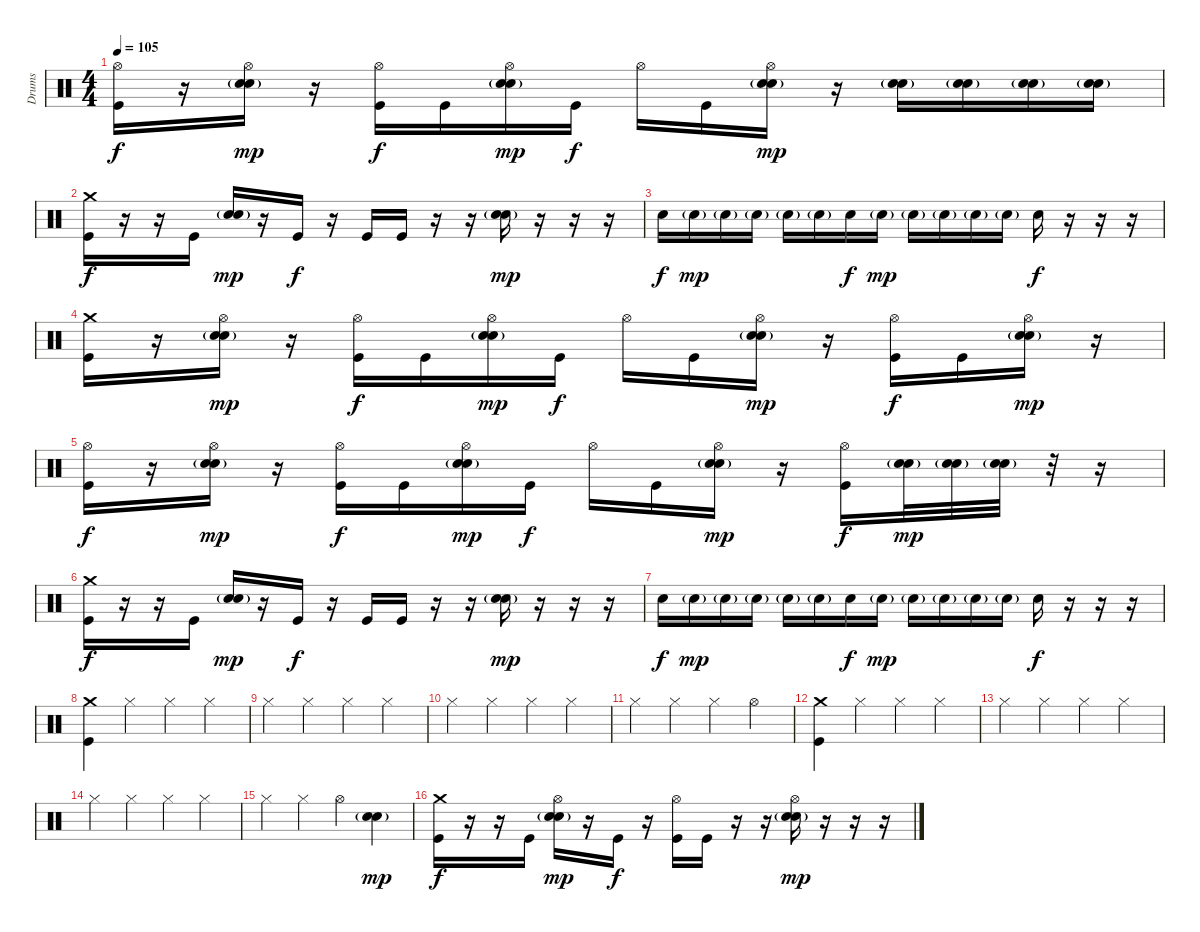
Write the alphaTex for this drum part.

\track ("Drums" "Drums") {instrument percussion}
\staff {score}
\articulation defaults
\ts (4 4)
\tempo 105
\clef neutral
\ks c
("Hi-Hat (open)" "Kick (hit)").16{dy f} r.16 ("Hi-Hat (open)" "Snare (hit) 2"{g} "Snare (hit) 2").16{dy mp} r.16 ("Hi-Hat (open)" "Kick (hit)").16{dy f} "Kick (hit)".16 ("Hi-Hat (open)" "Snare (hit) 2"{g} "Snare (hit) 2").16{dy mp} "Kick (hit)".16{dy f} "Hi-Hat (open)".16 "Kick (hit)".16 ("Hi-Hat (open)" "Snare (hit) 2"{g} "Snare (hit) 2").16{dy mp} r.16 ("Snare (hit) 2"{g} "Snare (hit) 2").16 ("Snare (hit) 2"{g} "Snare (hit) 2").16 ("Snare (hit) 2"{g} "Snare (hit) 2").16 ("Snare (hit) 2"{g} "Snare (hit) 2").16 |
("Crash medium (hit)" "Kick (hit)").16{dy f} r.16 r.16 "Kick (hit)".16 ("Snare (hit) 2"{g} "Snare (hit) 2").16{dy mp} r.16 "Kick (hit)".16{dy f} r.16 "Kick (hit)".16 "Kick (hit)".16 r.16 r.16 ("Snare (hit) 2"{g} "Snare (hit) 2").16{dy mp} r.16 r.16 r.16 |
"Snare (hit) 2".16{dy f} "Snare (hit) 2"{g}.16{dy mp} "Snare (hit) 2"{g}.16 "Snare (hit) 2"{g}.16 "Snare (hit) 2"{g}.16 "Snare (hit) 2"{g}.16 "Snare (hit) 2".16{dy f} "Snare (hit) 2"{g}.16{dy mp} "Snare (hit) 2"{g}.16 "Snare (hit) 2"{g}.16 "Snare (hit) 2"{g}.16 "Snare (hit) 2"{g}.16 "Snare (hit) 2".16{dy f} r.16 r.16 r.16 |
("Crash medium (hit)" "Kick (hit)").16 r.16 ("Hi-Hat (open)" "Snare (hit) 2"{g} "Snare (hit) 2").16{dy mp} r.16 ("Hi-Hat (open)" "Kick (hit)").16{dy f} "Kick (hit)".16 ("Hi-Hat (open)" "Snare (hit) 2"{g} "Snare (hit) 2").16{dy mp} "Kick (hit)".16{dy f} "Hi-Hat (open)".16 "Kick (hit)".16 ("Hi-Hat (open)" "Snare (hit) 2"{g} "Snare (hit) 2").16{dy mp} r.16 ("Hi-Hat (open)" "Kick (hit)").16{dy f} "Kick (hit)".16 ("Hi-Hat (open)" "Snare (hit) 2"{g} "Snare (hit) 2").16{dy mp} r.16 |
("Hi-Hat (open)" "Kick (hit)").16{dy f} r.16 ("Hi-Hat (open)" "Snare (hit) 2"{g} "Snare (hit) 2").16{dy mp} r.16 ("Hi-Hat (open)" "Kick (hit)").16{dy f} "Kick (hit)".16 ("Hi-Hat (open)" "Snare (hit) 2"{g} "Snare (hit) 2").16{dy mp} "Kick (hit)".16{dy f} "Hi-Hat (open)".16 "Kick (hit)".16 ("Hi-Hat (open)" "Snare (hit) 2"{g} "Snare (hit) 2").16{dy mp} r.16 ("Hi-Hat (open)" "Kick (hit)").16{dy f} ("Snare (hit) 2"{g} "Snare (hit) 2").32{dy mp} ("Snare (hit) 2"{g} "Snare (hit) 2").32 ("Snare (hit) 2"{g} "Snare (hit) 2").32 r.32 r.16 |
("Crash medium (hit)" "Kick (hit)").16{dy f} r.16 r.16 "Kick (hit)".16 ("Snare (hit) 2"{g} "Snare (hit) 2").16{dy mp} r.16 "Kick (hit)".16{dy f} r.16 "Kick (hit)".16 "Kick (hit)".16 r.16 r.16 ("Snare (hit) 2"{g} "Snare (hit) 2").16{dy mp} r.16 r.16 r.16 |
"Snare (hit) 2".16{dy f} "Snare (hit) 2"{g}.16{dy mp} "Snare (hit) 2"{g}.16 "Snare (hit) 2"{g}.16 "Snare (hit) 2"{g}.16 "Snare (hit) 2"{g}.16 "Snare (hit) 2".16{dy f} "Snare (hit) 2"{g}.16{dy mp} "Snare (hit) 2"{g}.16 "Snare (hit) 2"{g}.16 "Snare (hit) 2"{g}.16 "Snare (hit) 2"{g}.16 "Snare (hit) 2".16{dy f} r.16 r.16 r.16 |
("Crash medium (hit)" "Kick (hit)").4 "Hi-Hat (closed)".4 "Hi-Hat (closed)".4 "Hi-Hat (closed)".4 |
"Hi-Hat (closed)".4 "Hi-Hat (closed)".4 "Hi-Hat (closed)".4 "Hi-Hat (closed)".4 |
"Hi-Hat (closed)".4 "Hi-Hat (closed)".4 "Hi-Hat (closed)".4 "Hi-Hat (closed)".4 |
"Hi-Hat (closed)".4 "Hi-Hat (closed)".4 "Hi-Hat (closed)".4 "Hi-Hat (open)".4 |
("Crash medium (hit)" "Kick (hit)").4 "Hi-Hat (closed)".4 "Hi-Hat (closed)".4 "Hi-Hat (closed)".4 |
"Hi-Hat (closed)".4 "Hi-Hat (closed)".4 "Hi-Hat (closed)".4 "Hi-Hat (closed)".4 |
"Hi-Hat (closed)".4 "Hi-Hat (closed)".4 "Hi-Hat (closed)".4 "Hi-Hat (closed)".4 |
"Hi-Hat (closed)".4 "Hi-Hat (closed)".4 "Hi-Hat (open)".4 ("Snare (hit) 2"{g} "Snare (hit) 2").4{dy mp} |
("Crash medium (hit)" "Kick (hit)").16{dy f} r.16 r.16 "Kick (hit)".16 ("Hi-Hat (open)" "Snare (hit) 2"{g} "Snare (hit) 2").16{dy mp} r.16 "Kick (hit)".16{dy f} r.16 ("Hi-Hat (open)" "Kick (hit)").16 "Kick (hit)".16 r.16 r.16 ("Hi-Hat (open)" "Snare (hit) 2"{g} "Snare (hit) 2").16{dy mp} r.16 r.16 r.16
